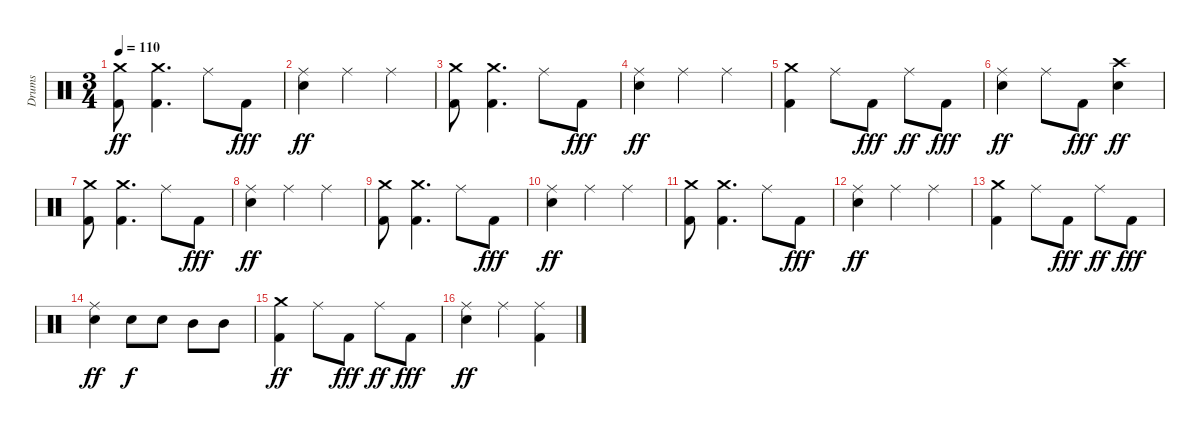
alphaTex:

\track ("Drums" "Drums") {instrument percussion}
\staff {score}
\articulation defaults
\ts (3 4)
\tempo 110
\clef neutral
\ks c
("Crash medium (hit)" "Kick (hit) 2").8{dy ff} ("Crash medium (hit)" "Kick (hit) 2").4{d} "Ride (middle)".8 "Kick (hit) 2".8{dy fff} |
("Ride (middle)" "Snare (hit) 2").4{dy ff} "Ride (middle)".4 "Ride (middle)".4 |
("Crash medium (hit)" "Kick (hit) 2").8 ("Crash medium (hit)" "Kick (hit) 2").4{d} "Ride (middle)".8 "Kick (hit) 2".8{dy fff} |
("Ride (middle)" "Snare (hit) 2").4{dy ff} "Ride (middle)".4 "Ride (middle)".4 |
("Crash medium (hit)" "Kick (hit) 2").4 "Ride (middle)".8 "Kick (hit) 2".8{dy fff} "Ride (middle)".8{dy ff} "Kick (hit) 2".8{dy fff} |
("Ride (middle)" "Snare (hit) 2").4{dy ff} "Ride (middle)".8 "Kick (hit) 2".8{dy fff} ("Crash high (hit)" "Snare (hit) 2").4{dy ff} |
("Crash medium (hit)" "Kick (hit) 2").8 ("Crash medium (hit)" "Kick (hit) 2").4{d} "Ride (middle)".8 "Kick (hit) 2".8{dy fff} |
("Ride (middle)" "Snare (hit) 2").4{dy ff} "Ride (middle)".4 "Ride (middle)".4 |
("Crash medium (hit)" "Kick (hit) 2").8 ("Crash medium (hit)" "Kick (hit) 2").4{d} "Ride (middle)".8 "Kick (hit) 2".8{dy fff} |
("Ride (middle)" "Snare (hit) 2").4{dy ff} "Ride (middle)".4 "Ride (middle)".4 |
("Crash medium (hit)" "Kick (hit) 2").8 ("Crash medium (hit)" "Kick (hit) 2").4{d} "Ride (middle)".8 "Kick (hit) 2".8{dy fff} |
("Ride (middle)" "Snare (hit) 2").4{dy ff} "Ride (middle)".4 "Ride (middle)".4 |
("Crash medium (hit)" "Kick (hit) 2").4 "Ride (middle)".8 "Kick (hit) 2".8{dy fff} "Ride (middle)".8{dy ff} "Kick (hit) 2".8{dy fff} |
("Ride (middle)" "Snare (hit) 2").4{dy ff} "Snare (hit) 2".8{dy f} "Snare (hit) 2".8 "Mid Tom (hit)".8 "Mid Tom (hit)".8 |
("Crash medium (hit)" "Kick (hit) 2").4{dy ff} "Ride (middle)".8 "Kick (hit) 2".8{dy fff} "Ride (middle)".8{dy ff} "Kick (hit) 2".8{dy fff} |
("Ride (middle)" "Snare (hit) 2").4{dy ff} "Ride (middle)".4 ("Ride (middle)" "Kick (hit) 2").4
